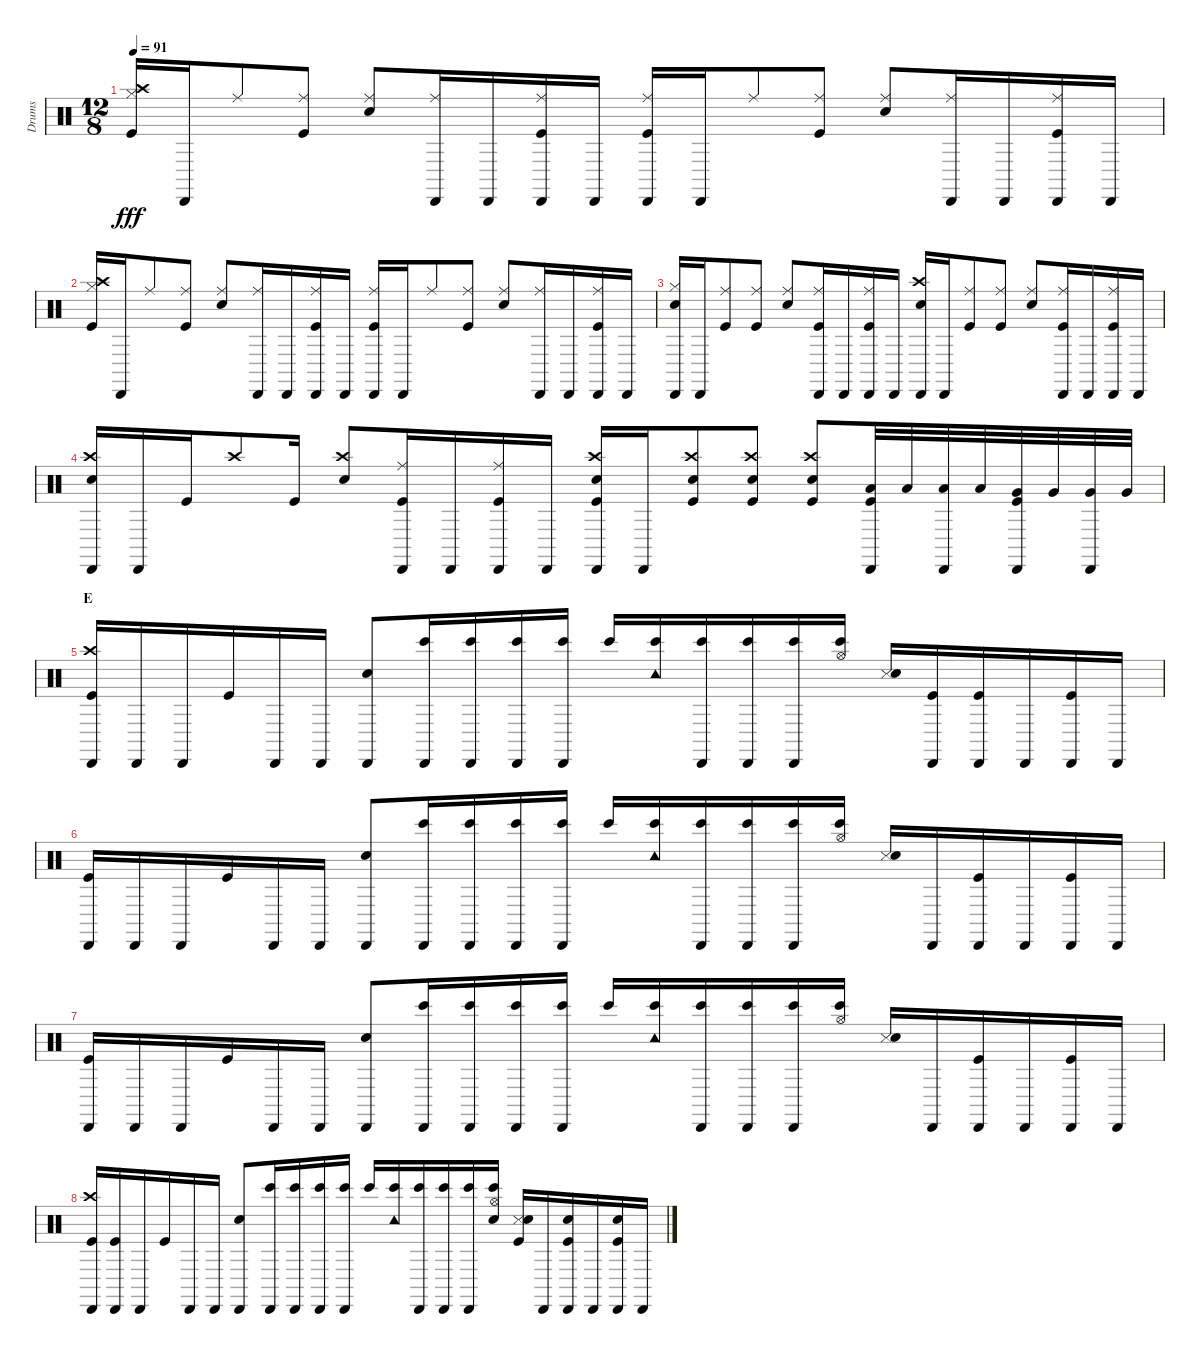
\track ("Drums" "Drums") {instrument percussion}
\staff {score}
\articulation defaults
\ts (12 8)
\tempo 91
\clef neutral
\ks c
("Hi-Hat (closed)" "Crash high (hit)" "Kick (hit)").16{dy fff} "Cabasa (hit)".16 "Ride (middle)".8 ("Ride (middle)" "Kick (hit)").8 ("Ride (middle)" "Snare (hit) 2").8 ("Ride (middle)" "Cabasa (hit)").16 "Cabasa (hit)".16 ("Ride (middle)" "Cabasa (hit)" "Kick (hit)").16 "Cabasa (hit)".16 ("Ride (middle)" "Cabasa (hit)" "Kick (hit)").16 "Cabasa (hit)".16 "Ride (middle)".8 ("Ride (middle)" "Kick (hit)").8 ("Ride (middle)" "Snare (hit) 2").8 ("Ride (middle)" "Cabasa (hit)").16 "Cabasa (hit)".16 ("Ride (middle)" "Cabasa (hit)" "Kick (hit)").16 "Cabasa (hit)".16 |
("Hi-Hat (closed)" "Crash high (hit)" "Kick (hit)").16 "Cabasa (hit)".16 "Ride (middle)".8 ("Ride (middle)" "Kick (hit)").8 ("Ride (middle)" "Snare (hit) 2").8 ("Ride (middle)" "Cabasa (hit)").16 "Cabasa (hit)".16 ("Ride (middle)" "Cabasa (hit)" "Kick (hit)").16 "Cabasa (hit)".16 ("Ride (middle)" "Cabasa (hit)" "Kick (hit)").16 "Cabasa (hit)".16 "Ride (middle)".8 ("Ride (middle)" "Kick (hit)").8 ("Ride (middle)" "Snare (hit) 2").8 ("Ride (middle)" "Cabasa (hit)").16 "Cabasa (hit)".16 ("Ride (middle)" "Cabasa (hit)" "Kick (hit)").16 "Cabasa (hit)".16 |
("Hi-Hat (closed)" "Cabasa (hit)" "Snare (hit) 2").16 "Cabasa (hit)".16 ("Ride (middle)" "Kick (hit)").8 ("Ride (middle)" "Kick (hit)").8 ("Ride (middle)" "Snare (hit) 2").8 ("Ride (middle)" "Cabasa (hit)" "Kick (hit)").16 "Cabasa (hit)".16 ("Ride (middle)" "Cabasa (hit)" "Kick (hit)").16 "Cabasa (hit)".16 ("Crash high (hit)" "Cabasa (hit)" "Snare (hit) 2").16 "Cabasa (hit)".16 ("Ride (middle)" "Kick (hit)").8 ("Ride (middle)" "Kick (hit)").8 ("Ride (middle)" "Snare (hit) 2").8 ("Ride (middle)" "Cabasa (hit)" "Kick (hit)").16 "Cabasa (hit)".16 ("Ride (middle)" "Cabasa (hit)" "Kick (hit)").16 "Cabasa (hit)".16 |
("Crash high (hit)" "Cabasa (hit)" "Snare (hit) 2").16 "Cabasa (hit)".16 "Kick (hit)".16 "Crash high (hit)".8 "Kick (hit)".16 ("Crash high (hit)" "Snare (hit) 2").8 ("Ride (middle)" "Cabasa (hit)" "Kick (hit)").16 "Cabasa (hit)".16 ("Ride (middle)" "Cabasa (hit)" "Kick (hit)").16 "Cabasa (hit)".16 ("Crash high (hit)" "Cabasa (hit)" "Snare (hit) 2" "Kick (hit)").16 "Cabasa (hit)".16 ("Crash high (hit)" "Snare (hit) 2" "Kick (hit)").8 ("Crash high (hit)" "Snare (hit) 2" "Kick (hit)").8 ("Crash high (hit)" "Snare (hit) 2" "Kick (hit)").8 ("Cabasa (hit)" "Low Tom (hit)" "Kick (hit)").32 "Low Tom (hit)".32 ("Cabasa (hit)" "Low Tom (hit)").32 "Low Tom (hit)".32 ("Cabasa (hit)" "Very Low Tom (hit)" "Kick (hit)").32 "Very Low Tom (hit)".32 ("Cabasa (hit)" "Very Low Tom (hit)").32 "Very Low Tom (hit)".32 |
\section ("" "E")
("Cabasa (hit)" "Crash high (hit)" "Kick (hit)").16 "Cabasa (hit)".16 "Cabasa (hit)".16 "Kick (hit)".16 "Cabasa (hit)".16 "Cabasa (hit)".16 ("Cabasa (hit)" "Snare (hit) 2").8 ("Cabasa (hit)" "Bongo High (hit)").16 ("Cabasa (hit)" "Bongo High (hit)").16 ("Cabasa (hit)" "Bongo High (hit)").16 ("Cabasa (hit)" "Bongo High (hit)").16 "Bongo High (hit)".16 ("Tambourine (hit)" "Bongo High (hit)").16 ("Cabasa (hit)" "Bongo High (hit)").16 ("Cabasa (hit)" "Bongo High (hit)").16 ("Cabasa (hit)" "Bongo High (hit)").16 ("Hi-Hat (open)" "Bongo High (hit)").16 ("Snare (side stick) 3" "Electric Snare (hit)").16 ("Cabasa (hit)" "Kick (hit)").16 ("Cabasa (hit)" "Kick (hit)").16 "Cabasa (hit)".16 ("Cabasa (hit)" "Kick (hit)").16 "Cabasa (hit)".16 |
("Cabasa (hit)" "Kick (hit)").16 "Cabasa (hit)".16 "Cabasa (hit)".16 "Kick (hit)".16 "Cabasa (hit)".16 "Cabasa (hit)".16 ("Cabasa (hit)" "Snare (hit) 2").8 ("Cabasa (hit)" "Bongo High (hit)").16 ("Cabasa (hit)" "Bongo High (hit)").16 ("Cabasa (hit)" "Bongo High (hit)").16 ("Cabasa (hit)" "Bongo High (hit)").16 "Bongo High (hit)".16 ("Tambourine (hit)" "Bongo High (hit)").16 ("Cabasa (hit)" "Bongo High (hit)").16 ("Cabasa (hit)" "Bongo High (hit)").16 ("Cabasa (hit)" "Bongo High (hit)").16 ("Hi-Hat (open)" "Bongo High (hit)").16 ("Snare (side stick) 3" "Electric Snare (hit)").16 "Cabasa (hit)".16 ("Cabasa (hit)" "Kick (hit)").16 "Cabasa (hit)".16 ("Cabasa (hit)" "Kick (hit)").16 "Cabasa (hit)".16 |
("Cabasa (hit)" "Kick (hit)").16 "Cabasa (hit)".16 "Cabasa (hit)".16 "Kick (hit)".16 "Cabasa (hit)".16 "Cabasa (hit)".16 ("Cabasa (hit)" "Snare (hit) 2").8 ("Cabasa (hit)" "Bongo High (hit)").16 ("Cabasa (hit)" "Bongo High (hit)").16 ("Cabasa (hit)" "Bongo High (hit)").16 ("Cabasa (hit)" "Bongo High (hit)").16 "Bongo High (hit)".16 ("Tambourine (hit)" "Bongo High (hit)").16 ("Cabasa (hit)" "Bongo High (hit)").16 ("Cabasa (hit)" "Bongo High (hit)").16 ("Cabasa (hit)" "Bongo High (hit)").16 ("Hi-Hat (open)" "Bongo High (hit)").16 ("Snare (side stick) 3" "Electric Snare (hit)").16 "Cabasa (hit)".16 ("Cabasa (hit)" "Kick (hit)").16 "Cabasa (hit)".16 ("Cabasa (hit)" "Kick (hit)").16 "Cabasa (hit)".16 |
("Cabasa (hit)" "Crash high (hit)" "Kick (hit)").16 ("Cabasa (hit)" "Kick (hit)").16 "Cabasa (hit)".16 "Kick (hit)".16 "Cabasa (hit)".16 "Cabasa (hit)".16 ("Cabasa (hit)" "Snare (hit) 2").8 ("Cabasa (hit)" "Bongo High (hit)").16 ("Cabasa (hit)" "Bongo High (hit)").16 ("Cabasa (hit)" "Bongo High (hit)").16 ("Cabasa (hit)" "Bongo High (hit)").16 "Bongo High (hit)".16 ("Tambourine (hit)" "Bongo High (hit)").16 ("Cabasa (hit)" "Bongo High (hit)").16 ("Cabasa (hit)" "Bongo High (hit)").16 ("Cabasa (hit)" "Bongo High (hit)").16 ("Hi-Hat (open)" "Bongo High (hit)" "Snare (hit) 2").16 ("Snare (side stick) 3" "Snare (hit) 2" "Kick (hit)").16 "Cabasa (hit)".16 ("Cabasa (hit)" "Snare (hit) 2" "Kick (hit)").16 "Cabasa (hit)".16 ("Cabasa (hit)" "Snare (hit) 2" "Kick (hit)").16 "Cabasa (hit)".16
